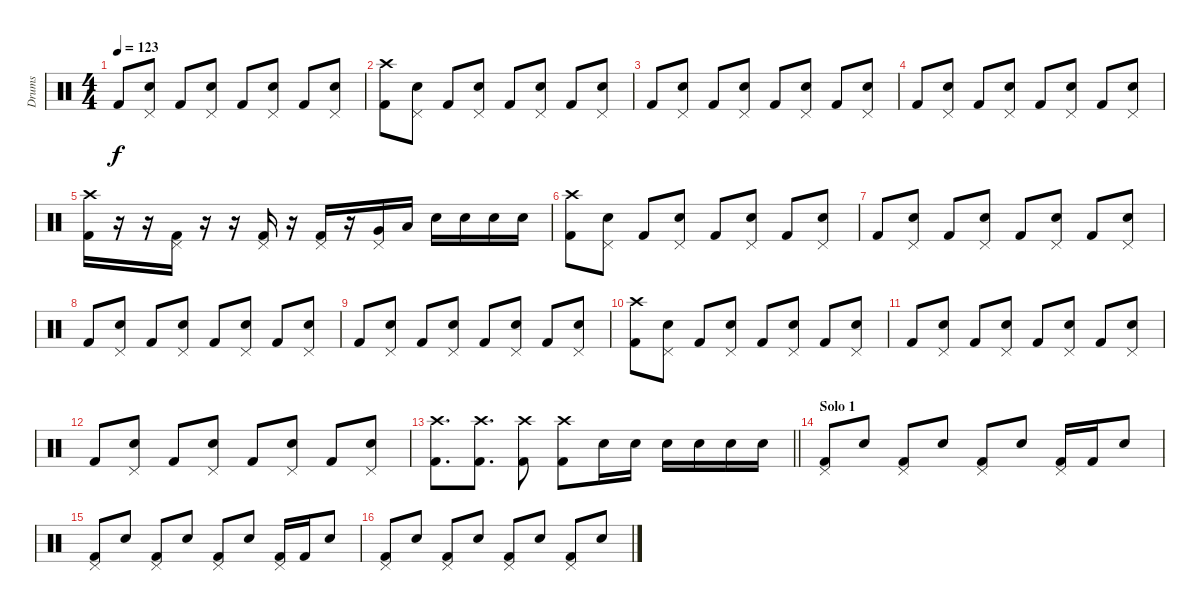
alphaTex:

\track ("Drums" "Drums") {instrument percussion}
\staff {score}
\articulation defaults
\ts (4 4)
\tempo 123
\clef neutral
\ks c "Kick (hit) 2".8{dy f}
("Pedal Hi-Hat (hit)" "Snare (hit) 2").8 "Kick (hit) 2".8 ("Pedal Hi-Hat (hit)" "Snare (hit) 2").8 "Kick (hit) 2".8 ("Pedal Hi-Hat (hit)" "Snare (hit) 2").8 "Kick (hit) 2".8 ("Pedal Hi-Hat (hit)" "Snare (hit) 2").8 |
("Crash high (hit)" "Kick (hit) 2").8 ("Pedal Hi-Hat (hit)" "Snare (hit) 2").8 "Kick (hit) 2".8 ("Pedal Hi-Hat (hit)" "Snare (hit) 2").8 "Kick (hit) 2".8 ("Pedal Hi-Hat (hit)" "Snare (hit) 2").8 "Kick (hit) 2".8 ("Pedal Hi-Hat (hit)" "Snare (hit) 2").8 |
"Kick (hit) 2".8 ("Pedal Hi-Hat (hit)" "Snare (hit) 2").8 "Kick (hit) 2".8 ("Pedal Hi-Hat (hit)" "Snare (hit) 2").8 "Kick (hit) 2".8 ("Pedal Hi-Hat (hit)" "Snare (hit) 2").8 "Kick (hit) 2".8 ("Pedal Hi-Hat (hit)" "Snare (hit) 2").8 |
"Kick (hit) 2".8 ("Pedal Hi-Hat (hit)" "Snare (hit) 2").8 "Kick (hit) 2".8 ("Pedal Hi-Hat (hit)" "Snare (hit) 2").8 "Kick (hit) 2".8 ("Pedal Hi-Hat (hit)" "Snare (hit) 2").8 "Kick (hit) 2".8 ("Pedal Hi-Hat (hit)" "Snare (hit) 2").8 |
("Crash high (hit)" "Kick (hit) 2").16 r.16 r.16 ("Pedal Hi-Hat (hit)" "Kick (hit) 2").16 r.16 r.16 ("Pedal Hi-Hat (hit)" "Kick (hit) 2").16 r.16 ("Pedal Hi-Hat (hit)" "Kick (hit) 2").16 r.16 ("Pedal Hi-Hat (hit)" "Very Low Tom (hit)").16 "Low Floor Tom (hit)".16 "Snare (hit) 2".16 "Snare (hit) 2".16 "Snare (hit) 2".16 "Snare (hit) 2".16 |
("Crash high (hit)" "Kick (hit) 2").8 ("Pedal Hi-Hat (hit)" "Snare (hit) 2").8 "Kick (hit) 2".8 ("Pedal Hi-Hat (hit)" "Snare (hit) 2").8 "Kick (hit) 2".8 ("Pedal Hi-Hat (hit)" "Snare (hit) 2").8 "Kick (hit) 2".8 ("Pedal Hi-Hat (hit)" "Snare (hit) 2").8 |
"Kick (hit) 2".8 ("Pedal Hi-Hat (hit)" "Snare (hit) 2").8 "Kick (hit) 2".8 ("Pedal Hi-Hat (hit)" "Snare (hit) 2").8 "Kick (hit) 2".8 ("Pedal Hi-Hat (hit)" "Snare (hit) 2").8 "Kick (hit) 2".8 ("Pedal Hi-Hat (hit)" "Snare (hit) 2").8 |
"Kick (hit) 2".8 ("Pedal Hi-Hat (hit)" "Snare (hit) 2").8 "Kick (hit) 2".8 ("Pedal Hi-Hat (hit)" "Snare (hit) 2").8 "Kick (hit) 2".8 ("Pedal Hi-Hat (hit)" "Snare (hit) 2").8 "Kick (hit) 2".8 ("Pedal Hi-Hat (hit)" "Snare (hit) 2").8 |
"Kick (hit) 2".8 ("Pedal Hi-Hat (hit)" "Snare (hit) 2").8 "Kick (hit) 2".8 ("Pedal Hi-Hat (hit)" "Snare (hit) 2").8 "Kick (hit) 2".8 ("Pedal Hi-Hat (hit)" "Snare (hit) 2").8 "Kick (hit) 2".8 ("Pedal Hi-Hat (hit)" "Snare (hit) 2").8 |
("Crash high (hit)" "Kick (hit) 2").8 ("Pedal Hi-Hat (hit)" "Snare (hit) 2").8 "Kick (hit) 2".8 ("Pedal Hi-Hat (hit)" "Snare (hit) 2").8 "Kick (hit) 2".8 ("Pedal Hi-Hat (hit)" "Snare (hit) 2").8 "Kick (hit) 2".8 ("Pedal Hi-Hat (hit)" "Snare (hit) 2").8 |
"Kick (hit) 2".8 ("Pedal Hi-Hat (hit)" "Snare (hit) 2").8 "Kick (hit) 2".8 ("Pedal Hi-Hat (hit)" "Snare (hit) 2").8 "Kick (hit) 2".8 ("Pedal Hi-Hat (hit)" "Snare (hit) 2").8 "Kick (hit) 2".8 ("Pedal Hi-Hat (hit)" "Snare (hit) 2").8 |
"Kick (hit) 2".8 ("Pedal Hi-Hat (hit)" "Snare (hit) 2").8 "Kick (hit) 2".8 ("Pedal Hi-Hat (hit)" "Snare (hit) 2").8 "Kick (hit) 2".8 ("Pedal Hi-Hat (hit)" "Snare (hit) 2").8 "Kick (hit) 2".8 ("Pedal Hi-Hat (hit)" "Snare (hit) 2").8 |
\barLineRight lightlight
("Crash high (hit)" "Kick (hit) 2").8{d} ("Crash high (hit)" "Kick (hit) 2").8{d} ("Crash high (hit)" "Kick (hit) 2").8 ("Crash high (hit)" "Kick (hit) 2").8 "Snare (hit) 2".16 "Snare (hit) 2".16 "Snare (hit) 2".16 "Snare (hit) 2".16 "Snare (hit) 2".16 "Snare (hit) 2".16 |
\section ("" "Solo 1")
("Pedal Hi-Hat (hit)" "Kick (hit) 2").8 "Snare (hit) 2".8 ("Pedal Hi-Hat (hit)" "Kick (hit) 2").8 "Snare (hit) 2".8 ("Pedal Hi-Hat (hit)" "Kick (hit) 2").8 "Snare (hit) 2".8 ("Pedal Hi-Hat (hit)" "Kick (hit) 2").16 "Kick (hit) 2".16 "Snare (hit) 2".8 |
("Pedal Hi-Hat (hit)" "Kick (hit) 2").8 "Snare (hit) 2".8 ("Pedal Hi-Hat (hit)" "Kick (hit) 2").8 "Snare (hit) 2".8 ("Pedal Hi-Hat (hit)" "Kick (hit) 2").8 "Snare (hit) 2".8 ("Pedal Hi-Hat (hit)" "Kick (hit) 2").16 "Kick (hit) 2".16 "Snare (hit) 2".8 |
("Pedal Hi-Hat (hit)" "Kick (hit) 2").8 "Snare (hit) 2".8 ("Pedal Hi-Hat (hit)" "Kick (hit) 2").8 "Snare (hit) 2".8 ("Pedal Hi-Hat (hit)" "Kick (hit) 2").8 "Snare (hit) 2".8 ("Pedal Hi-Hat (hit)" "Kick (hit) 2").8 "Snare (hit) 2".8
